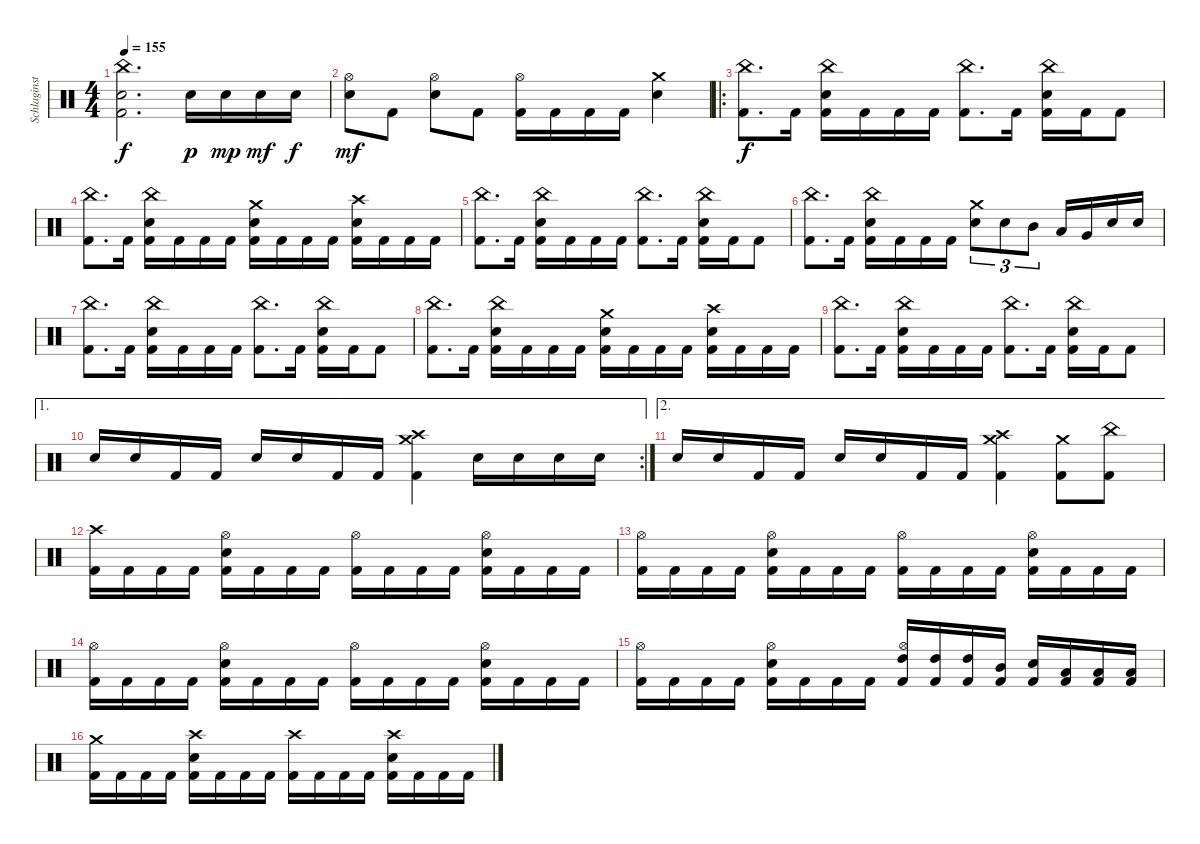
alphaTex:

\track ("Schlaginstrumente - Auswahl" "Schlaginst") {instrument percussion}
\staff {score}
\articulation defaults
\ts (4 4)
\tempo 155
\clef neutral
\ks c
("China (hit)" "Electric Snare (hit)" "Kick (hit) 2").2{d dy f} "Electric Snare (hit)".16{dy p} "Electric Snare (hit)".16{dy mp} "Electric Snare (hit)".16{dy mf} "Electric Snare (hit)".16{dy f} |
("Hi-Hat (open)" "Electric Snare (hit)").8{dy mf} "Kick (hit) 2".8 ("Hi-Hat (open)" "Electric Snare (hit)").8 "Kick (hit) 2".8 ("Hi-Hat (open)" "Kick (hit) 2").16 "Kick (hit) 2".16 "Kick (hit) 2".16 "Kick (hit) 2".16 ("Crash medium (hit)" "Electric Snare (hit)").4 |
\ro
("China (hit)" "Kick (hit) 2").8{d dy f} "Kick (hit) 2".16 ("China (hit)" "Electric Snare (hit)" "Kick (hit) 2").16 "Kick (hit) 2".16 "Kick (hit) 2".16 "Kick (hit) 2".16 ("China (hit)" "Kick (hit) 2").8{d} "Kick (hit) 2".16 ("China (hit)" "Electric Snare (hit)" "Kick (hit) 2").16 "Kick (hit) 2".16 "Kick (hit) 2".8 |
("China (hit)" "Kick (hit) 2").8{d} "Kick (hit) 2".16 ("China (hit)" "Electric Snare (hit)" "Kick (hit) 2").16 "Kick (hit) 2".16 "Kick (hit) 2".16 "Kick (hit) 2".16 ("Crash medium (hit)" "Electric Snare (hit)" "Kick (hit) 2").16 "Kick (hit) 2".16 "Kick (hit) 2".16 "Kick (hit) 2".16 ("Crash high (hit)" "Electric Snare (hit)" "Kick (hit) 2").16 "Kick (hit) 2".16 "Kick (hit) 2".16 "Kick (hit) 2".16 |
("China (hit)" "Kick (hit) 2").8{d} "Kick (hit) 2".16 ("China (hit)" "Electric Snare (hit)" "Kick (hit) 2").16 "Kick (hit) 2".16 "Kick (hit) 2".16 "Kick (hit) 2".16 ("China (hit)" "Kick (hit) 2").8{d} "Kick (hit) 2".16 ("China (hit)" "Electric Snare (hit)" "Kick (hit) 2").16 "Kick (hit) 2".16 "Kick (hit) 2".8 |
("China (hit)" "Kick (hit) 2").8{d} "Kick (hit) 2".16 ("China (hit)" "Electric Snare (hit)" "Kick (hit) 2").16 "Kick (hit) 2".16 "Kick (hit) 2".16 "Kick (hit) 2".16 ("Crash medium (hit)" "Electric Snare (hit)").8{tu (3 2)} "Electric Snare (hit)".8{tu (3 2)} "Mid Tom (hit)".8{tu (3 2)} "Low Tom (hit)".16 "Very Low Tom (hit)".16 "Electric Snare (hit)".16 "Electric Snare (hit)".16 |
("China (hit)" "Kick (hit) 2").8{d} "Kick (hit) 2".16 ("China (hit)" "Electric Snare (hit)" "Kick (hit) 2").16 "Kick (hit) 2".16 "Kick (hit) 2".16 "Kick (hit) 2".16 ("China (hit)" "Kick (hit) 2").8{d} "Kick (hit) 2".16 ("China (hit)" "Electric Snare (hit)" "Kick (hit) 2").16 "Kick (hit) 2".16 "Kick (hit) 2".8 |
("China (hit)" "Kick (hit) 2").8{d} "Kick (hit) 2".16 ("China (hit)" "Electric Snare (hit)" "Kick (hit) 2").16 "Kick (hit) 2".16 "Kick (hit) 2".16 "Kick (hit) 2".16 ("Crash medium (hit)" "Electric Snare (hit)" "Kick (hit) 2").16 "Kick (hit) 2".16 "Kick (hit) 2".16 "Kick (hit) 2".16 ("Crash high (hit)" "Electric Snare (hit)" "Kick (hit) 2").16 "Kick (hit) 2".16 "Kick (hit) 2".16 "Kick (hit) 2".16 |
("China (hit)" "Kick (hit) 2").8{d} "Kick (hit) 2".16 ("China (hit)" "Electric Snare (hit)" "Kick (hit) 2").16 "Kick (hit) 2".16 "Kick (hit) 2".16 "Kick (hit) 2".16 ("China (hit)" "Kick (hit) 2").8{d} "Kick (hit) 2".16 ("China (hit)" "Electric Snare (hit)" "Kick (hit) 2").16 "Kick (hit) 2".16 "Kick (hit) 2".8 |
\ae 1
\rc 2 "Electric Snare (hit)".16 "Electric Snare (hit)".16 "Kick (hit) 2".16 "Kick (hit) 2".16 "Electric Snare (hit)".16 "Electric Snare (hit)".16 "Kick (hit) 2".16 "Kick (hit) 2".16
("Crash medium (hit)" "Crash high (hit)" "Kick (hit) 2").4 "Electric Snare (hit)".16 "Electric Snare (hit)".16 "Electric Snare (hit)".16 "Electric Snare (hit)".16 |
\ae 2 "Electric Snare (hit)".16 "Electric Snare (hit)".16 "Kick (hit) 2".16 "Kick (hit) 2".16 "Electric Snare (hit)".16 "Electric Snare (hit)".16 "Kick (hit) 2".16 "Kick (hit) 2".16
("Crash medium (hit)" "Crash high (hit)" "Kick (hit) 2").4 ("Crash medium (hit)" "Kick (hit) 2").8 ("China (hit)" "Kick (hit) 2").8 |
("Crash high (hit)" "Kick (hit) 2").16 "Kick (hit) 2".16 "Kick (hit) 2".16 "Kick (hit) 2".16 ("Hi-Hat (open)" "Electric Snare (hit)" "Kick (hit) 2").16 "Kick (hit) 2".16 "Kick (hit) 2".16 "Kick (hit) 2".16 ("Hi-Hat (open)" "Kick (hit) 2").16 "Kick (hit) 2".16 "Kick (hit) 2".16 "Kick (hit) 2".16 ("Hi-Hat (open)" "Electric Snare (hit)" "Kick (hit) 2").16 "Kick (hit) 2".16 "Kick (hit) 2".16 "Kick (hit) 2".16 |
("Hi-Hat (open)" "Kick (hit) 2").16 "Kick (hit) 2".16 "Kick (hit) 2".16 "Kick (hit) 2".16 ("Hi-Hat (open)" "Electric Snare (hit)" "Kick (hit) 2").16 "Kick (hit) 2".16 "Kick (hit) 2".16 "Kick (hit) 2".16 ("Hi-Hat (open)" "Kick (hit) 2").16 "Kick (hit) 2".16 "Kick (hit) 2".16 "Kick (hit) 2".16 ("Hi-Hat (open)" "Electric Snare (hit)" "Kick (hit) 2").16 "Kick (hit) 2".16 "Kick (hit) 2".16 "Kick (hit) 2".16 |
("Hi-Hat (open)" "Kick (hit) 2").16 "Kick (hit) 2".16 "Kick (hit) 2".16 "Kick (hit) 2".16 ("Hi-Hat (open)" "Electric Snare (hit)" "Kick (hit) 2").16 "Kick (hit) 2".16 "Kick (hit) 2".16 "Kick (hit) 2".16 ("Hi-Hat (open)" "Kick (hit) 2").16 "Kick (hit) 2".16 "Kick (hit) 2".16 "Kick (hit) 2".16 ("Hi-Hat (open)" "Electric Snare (hit)" "Kick (hit) 2").16 "Kick (hit) 2".16 "Kick (hit) 2".16 "Kick (hit) 2".16 |
("Hi-Hat (open)" "Kick (hit) 2").16 "Kick (hit) 2".16 "Kick (hit) 2".16 "Kick (hit) 2".16 ("Hi-Hat (open)" "Electric Snare (hit)" "Kick (hit) 2").16 "Kick (hit) 2".16 "Kick (hit) 2".16 "Kick (hit) 2".16 ("Hi-Hat (open)" "High Tom (hit)" "Kick (hit) 2").16 ("High Tom (hit)" "Kick (hit) 2").16 ("High Tom (hit)" "Kick (hit) 2").16 ("Mid Tom (hit)" "Kick (hit) 2").16 ("Electric Snare (hit)" "Kick (hit) 2").16 ("Low Tom (hit)" "Kick (hit) 2").16 ("Low Tom (hit)" "Kick (hit) 2").16 ("Low Tom (hit)" "Kick (hit) 2").16 |
("Crash medium (hit)" "Kick (hit) 2").16 "Kick (hit) 2".16 "Kick (hit) 2".16 "Kick (hit) 2".16 ("Crash high (hit)" "Electric Snare (hit)" "Kick (hit) 2").16 "Kick (hit) 2".16 "Kick (hit) 2".16 "Kick (hit) 2".16 ("Crash high (hit)" "Kick (hit) 2").16 "Kick (hit) 2".16 "Kick (hit) 2".16 "Kick (hit) 2".16 ("Crash high (hit)" "Electric Snare (hit)" "Kick (hit) 2").16 "Kick (hit) 2".16 "Kick (hit) 2".16 "Kick (hit) 2".16
